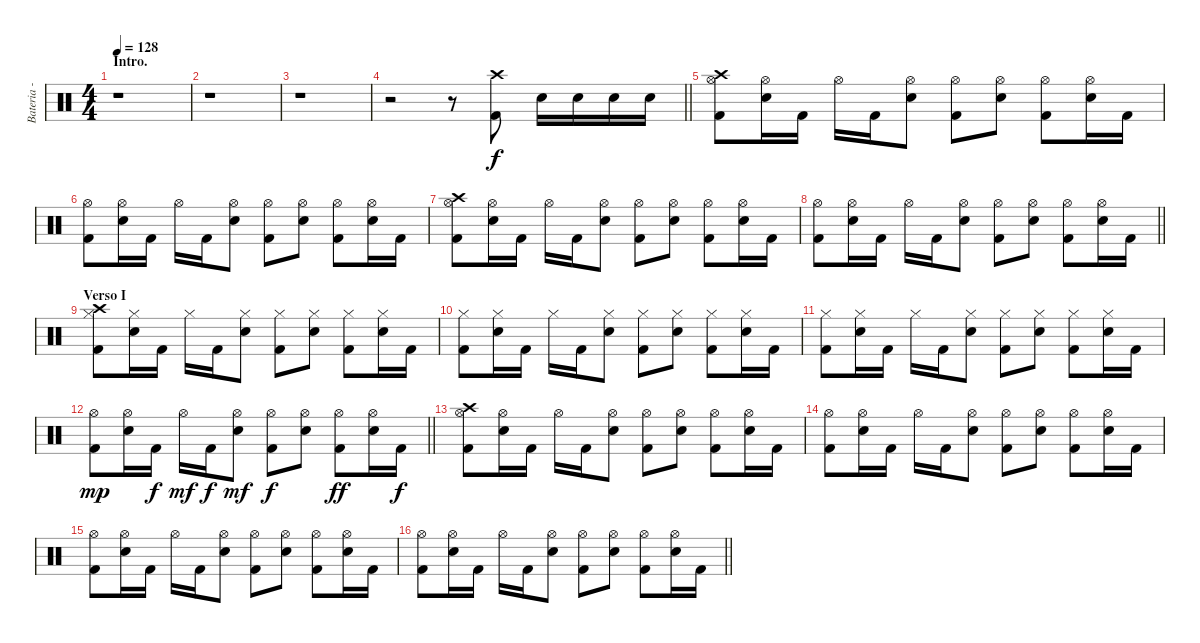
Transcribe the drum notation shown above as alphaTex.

\track ("Bateria - Larzon" "Bateria - ") {instrument percussion}
\staff {score}
\articulation defaults
\ts (4 4)
\section ("" "Intro.")
\tempo 128
\clef neutral
\ks c
r.1{dy f} |
r.1 |
r.1 |
\barLineRight lightlight
r.2 r.8 ("Crash high (hit)" "Kick (hit) 2").8 "Electric Snare (hit)".16 "Electric Snare (hit)".16 "Electric Snare (hit)".16 "Electric Snare (hit)".16 |
("Kick (hit) 2" "Hi-Hat (open)" "Crash high (hit)").8 ("Electric Snare (hit)" "Hi-Hat (open)").16 "Kick (hit) 2".16 "Hi-Hat (open)".16 "Kick (hit) 2".16 ("Electric Snare (hit)" "Hi-Hat (open)").8 ("Kick (hit) 2" "Hi-Hat (open)").8 ("Electric Snare (hit)" "Hi-Hat (open)").8 ("Kick (hit) 2" "Hi-Hat (open)").8 ("Electric Snare (hit)" "Hi-Hat (open)").16 "Kick (hit) 2".16 |
("Kick (hit) 2" "Hi-Hat (open)").8 ("Electric Snare (hit)" "Hi-Hat (open)").16 "Kick (hit) 2".16 "Hi-Hat (open)".16 "Kick (hit) 2".16 ("Electric Snare (hit)" "Hi-Hat (open)").8 ("Kick (hit) 2" "Hi-Hat (open)").8 ("Electric Snare (hit)" "Hi-Hat (open)").8 ("Kick (hit) 2" "Hi-Hat (open)").8 ("Electric Snare (hit)" "Hi-Hat (open)").16 "Kick (hit) 2".16 |
("Kick (hit) 2" "Hi-Hat (open)" "Crash high (hit)").8 ("Electric Snare (hit)" "Hi-Hat (open)").16 "Kick (hit) 2".16 "Hi-Hat (open)".16 "Kick (hit) 2".16 ("Electric Snare (hit)" "Hi-Hat (open)").8 ("Kick (hit) 2" "Hi-Hat (open)").8 ("Electric Snare (hit)" "Hi-Hat (open)").8 ("Kick (hit) 2" "Hi-Hat (open)").8 ("Electric Snare (hit)" "Hi-Hat (open)").16 "Kick (hit) 2".16 |
\barLineRight lightlight
("Kick (hit) 2" "Hi-Hat (open)").8 ("Electric Snare (hit)" "Hi-Hat (open)").16 "Kick (hit) 2".16 "Hi-Hat (open)".16 "Kick (hit) 2".16 ("Electric Snare (hit)" "Hi-Hat (open)").8 ("Kick (hit) 2" "Hi-Hat (open)").8 ("Electric Snare (hit)" "Hi-Hat (open)").8 ("Kick (hit) 2" "Hi-Hat (open)").8 ("Electric Snare (hit)" "Hi-Hat (open)").16 "Kick (hit) 2".16 |
\section ("" "Verso I")
("Kick (hit) 2" "Hi-Hat (closed)" "Crash high (hit)").8 ("Electric Snare (hit)" "Hi-Hat (closed)").16 "Kick (hit) 2".16 "Hi-Hat (closed)".16 "Kick (hit) 2".16 ("Electric Snare (hit)" "Hi-Hat (closed)").8 ("Kick (hit) 2" "Hi-Hat (closed)").8 ("Electric Snare (hit)" "Hi-Hat (closed)").8 ("Kick (hit) 2" "Hi-Hat (closed)").8 ("Electric Snare (hit)" "Hi-Hat (closed)").16 "Kick (hit) 2".16 |
("Kick (hit) 2" "Hi-Hat (closed)").8 ("Electric Snare (hit)" "Hi-Hat (closed)").16 "Kick (hit) 2".16 "Hi-Hat (closed)".16 "Kick (hit) 2".16 ("Electric Snare (hit)" "Hi-Hat (closed)").8 ("Kick (hit) 2" "Hi-Hat (closed)").8 ("Electric Snare (hit)" "Hi-Hat (closed)").8 ("Kick (hit) 2" "Hi-Hat (closed)").8 ("Electric Snare (hit)" "Hi-Hat (closed)").16 "Kick (hit) 2".16 |
("Kick (hit) 2" "Hi-Hat (closed)").8 ("Electric Snare (hit)" "Hi-Hat (closed)").16 "Kick (hit) 2".16 "Hi-Hat (closed)".16 "Kick (hit) 2".16 ("Electric Snare (hit)" "Hi-Hat (closed)").8 ("Kick (hit) 2" "Hi-Hat (closed)").8 ("Electric Snare (hit)" "Hi-Hat (closed)").8 ("Kick (hit) 2" "Hi-Hat (closed)").8 ("Electric Snare (hit)" "Hi-Hat (closed)").16 "Kick (hit) 2".16 |
\barLineRight lightlight
("Kick (hit) 2" "Hi-Hat (open)").8{dy mp} ("Electric Snare (hit)" "Hi-Hat (open)").16 "Kick (hit) 2".16{dy f} "Hi-Hat (open)".16{dy mf} "Kick (hit) 2".16{dy f} ("Electric Snare (hit)" "Hi-Hat (open)").8{dy mf} ("Kick (hit) 2" "Hi-Hat (open)").8{dy f} ("Electric Snare (hit)" "Hi-Hat (open)").8 ("Kick (hit) 2" "Hi-Hat (open)").8{dy ff} ("Electric Snare (hit)" "Hi-Hat (open)").16 "Kick (hit) 2".16{dy f} |
("Kick (hit) 2" "Hi-Hat (open)" "Crash high (hit)").8 ("Electric Snare (hit)" "Hi-Hat (open)").16 "Kick (hit) 2".16 "Hi-Hat (open)".16 "Kick (hit) 2".16 ("Electric Snare (hit)" "Hi-Hat (open)").8 ("Kick (hit) 2" "Hi-Hat (open)").8 ("Electric Snare (hit)" "Hi-Hat (open)").8 ("Kick (hit) 2" "Hi-Hat (open)").8 ("Electric Snare (hit)" "Hi-Hat (open)").16 "Kick (hit) 2".16 |
("Kick (hit) 2" "Hi-Hat (open)").8 ("Electric Snare (hit)" "Hi-Hat (open)").16 "Kick (hit) 2".16 "Hi-Hat (open)".16 "Kick (hit) 2".16 ("Electric Snare (hit)" "Hi-Hat (open)").8 ("Kick (hit) 2" "Hi-Hat (open)").8 ("Electric Snare (hit)" "Hi-Hat (open)").8 ("Kick (hit) 2" "Hi-Hat (open)").8 ("Electric Snare (hit)" "Hi-Hat (open)").16 "Kick (hit) 2".16 |
("Kick (hit) 2" "Hi-Hat (open)").8 ("Electric Snare (hit)" "Hi-Hat (open)").16 "Kick (hit) 2".16 "Hi-Hat (open)".16 "Kick (hit) 2".16 ("Electric Snare (hit)" "Hi-Hat (open)").8 ("Kick (hit) 2" "Hi-Hat (open)").8 ("Electric Snare (hit)" "Hi-Hat (open)").8 ("Kick (hit) 2" "Hi-Hat (open)").8 ("Electric Snare (hit)" "Hi-Hat (open)").16 "Kick (hit) 2".16 |
\barLineRight lightlight
("Kick (hit) 2" "Hi-Hat (open)").8 ("Electric Snare (hit)" "Hi-Hat (open)").16 "Kick (hit) 2".16 "Hi-Hat (open)".16 "Kick (hit) 2".16 ("Electric Snare (hit)" "Hi-Hat (open)").8 ("Kick (hit) 2" "Hi-Hat (open)").8 ("Electric Snare (hit)" "Hi-Hat (open)").8 ("Kick (hit) 2" "Hi-Hat (open)").8 ("Electric Snare (hit)" "Hi-Hat (open)").16 "Kick (hit) 2".16
